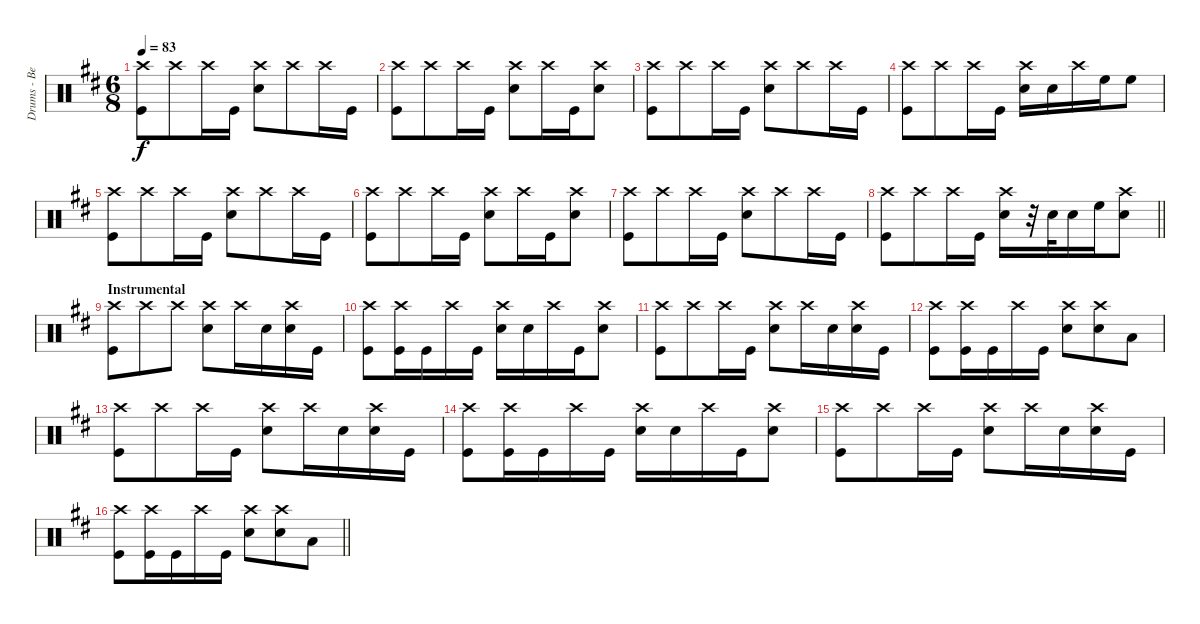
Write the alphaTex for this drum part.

\track ("Drums - Ben Johnston" "Drums - Be") {instrument percussion}
\staff {score}
\articulation defaults
\ts (6 8)
\tempo 83
\clef neutral
\ks d
("Crash high (hit)" "Kick (hit)").8{dy f} "Crash high (hit)".8 "Crash high (hit)".16 "Kick (hit)".16 ("Crash high (hit)" "Snare (hit) 2").8 "Crash high (hit)".8 "Crash high (hit)".16 "Kick (hit)".16 |
("Crash high (hit)" "Kick (hit)").8 "Crash high (hit)".8 "Crash high (hit)".16 "Kick (hit)".16 ("Crash high (hit)" "Snare (hit) 2").8 "Crash high (hit)".16 "Kick (hit)".16 ("Crash high (hit)" "Snare (hit) 2").8 |
("Crash high (hit)" "Kick (hit)").8 "Crash high (hit)".8 "Crash high (hit)".16 "Kick (hit)".16 ("Crash high (hit)" "Snare (hit) 2").8 "Crash high (hit)".8 "Crash high (hit)".16 "Kick (hit)".16 |
("Crash high (hit)" "Kick (hit)").8 "Crash high (hit)".8 "Crash high (hit)".16 "Kick (hit)".16 ("Crash high (hit)" "Snare (hit) 2").16 "Snare (hit) 2".16 "Crash high (hit)".16 "High Floor Tom (hit)".16 "High Floor Tom (hit)".8 |
("Crash high (hit)" "Kick (hit)").8 "Crash high (hit)".8 "Crash high (hit)".16 "Kick (hit)".16 ("Crash high (hit)" "Snare (hit) 2").8 "Crash high (hit)".8 "Crash high (hit)".16 "Kick (hit)".16 |
("Crash high (hit)" "Kick (hit)").8 "Crash high (hit)".8 "Crash high (hit)".16 "Kick (hit)".16 ("Crash high (hit)" "Snare (hit) 2").8 "Crash high (hit)".16 "Kick (hit)".16 ("Crash high (hit)" "Snare (hit) 2").8 |
("Crash high (hit)" "Kick (hit)").8 "Crash high (hit)".8 "Crash high (hit)".16 "Kick (hit)".16 ("Crash high (hit)" "Snare (hit) 2").8 "Crash high (hit)".8 "Crash high (hit)".16 "Kick (hit)".16 |
\barLineRight lightlight
("Crash high (hit)" "Kick (hit)").8 "Crash high (hit)".8 "Crash high (hit)".16 "Kick (hit)".16 ("Crash high (hit)" "Snare (hit) 2").16 r.32 "Snare (hit) 2".32 "Snare (hit) 2".16 "High Floor Tom (hit)".16 ("Crash high (hit)" "Snare (hit) 2").8 |
\section ("" "Instrumental")
("Crash high (hit)" "Kick (hit)").8 "Crash high (hit)".8 "Crash high (hit)".8 ("Crash high (hit)" "Snare (hit) 2").8 "Crash high (hit)".16 "Snare (hit) 2".16 ("Crash high (hit)" "Snare (hit) 2").16 "Kick (hit)".16 |
("Crash high (hit)" "Kick (hit)").8 ("Crash high (hit)" "Kick (hit)").16 "Kick (hit)".16 "Crash high (hit)".16 "Kick (hit)".16 ("Crash high (hit)" "Snare (hit) 2").16 "Snare (hit) 2".16 "Crash high (hit)".16 "Kick (hit)".16 ("Crash high (hit)" "Snare (hit) 2").8 |
("Crash high (hit)" "Kick (hit)").8 "Crash high (hit)".8 "Crash high (hit)".16 "Kick (hit)".16 ("Crash high (hit)" "Snare (hit) 2").8 "Crash high (hit)".16 "Snare (hit) 2".16 ("Crash high (hit)" "Snare (hit) 2").16 "Kick (hit)".16 |
("Crash high (hit)" "Kick (hit)").8 ("Crash high (hit)" "Kick (hit)").16 "Kick (hit)".16 "Crash high (hit)".16 "Kick (hit)".16 ("Crash high (hit)" "Snare (hit) 2").8 ("Crash high (hit)" "Snare (hit) 2").8 "Low Tom (hit)".8 |
("Crash high (hit)" "Kick (hit)").8 "Crash high (hit)".8 "Crash high (hit)".16 "Kick (hit)".16 ("Crash high (hit)" "Snare (hit) 2").8 "Crash high (hit)".16 "Snare (hit) 2".16 ("Crash high (hit)" "Snare (hit) 2").16 "Kick (hit)".16 |
("Crash high (hit)" "Kick (hit)").8 ("Crash high (hit)" "Kick (hit)").16 "Kick (hit)".16 "Crash high (hit)".16 "Kick (hit)".16 ("Crash high (hit)" "Snare (hit) 2").16 "Snare (hit) 2".16 "Crash high (hit)".16 "Kick (hit)".16 ("Crash high (hit)" "Snare (hit) 2").8 |
("Crash high (hit)" "Kick (hit)").8 "Crash high (hit)".8 "Crash high (hit)".16 "Kick (hit)".16 ("Crash high (hit)" "Snare (hit) 2").8 "Crash high (hit)".16 "Snare (hit) 2".16 ("Crash high (hit)" "Snare (hit) 2").16 "Kick (hit)".16 |
\barLineRight lightlight
("Crash high (hit)" "Kick (hit)").8 ("Crash high (hit)" "Kick (hit)").16 "Kick (hit)".16 "Crash high (hit)".16 "Kick (hit)".16 ("Crash high (hit)" "Snare (hit) 2").8 ("Crash high (hit)" "Snare (hit) 2").8 "Low Tom (hit)".8
